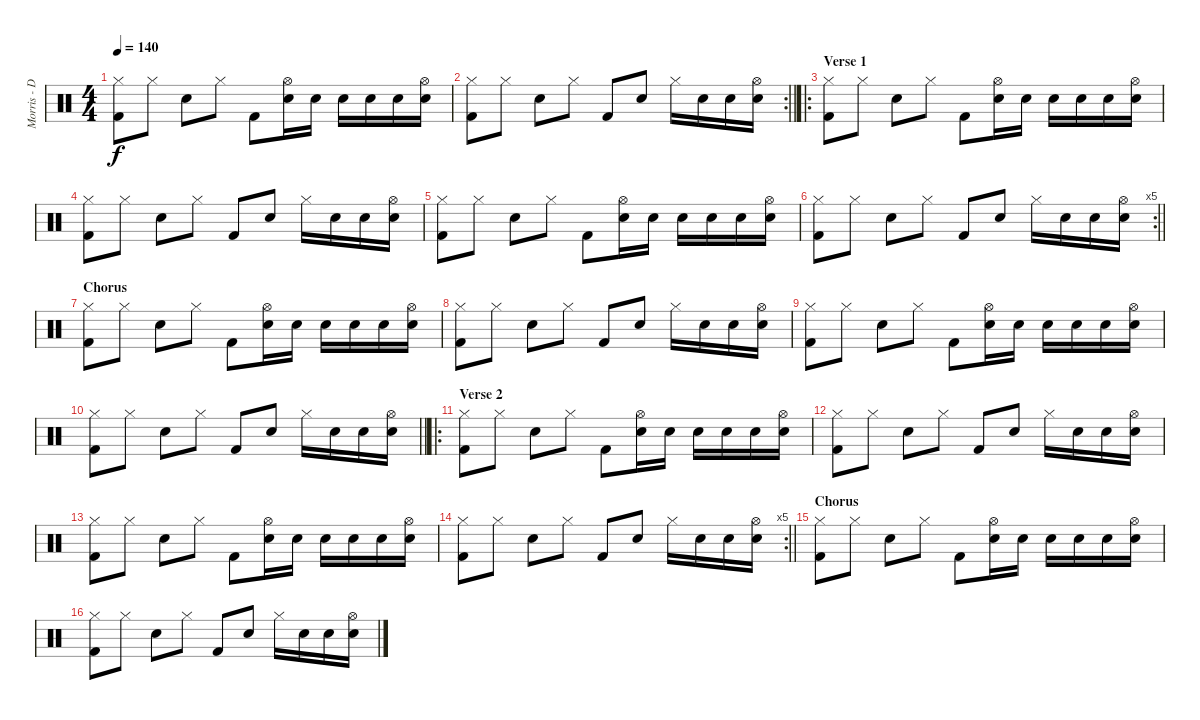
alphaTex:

\track ("Morris - Drums" "Morris - D") {instrument percussion}
\staff {score}
\articulation defaults
\ts (4 4)
\tempo 140
\clef neutral
\ks c
("Kick (hit) 2" "Hi-Hat (closed)").8{dy f} "Hi-Hat (closed)".8 "Snare (hit) 2".8 "Hi-Hat (closed)".8 "Kick (hit) 2".8 ("Snare (hit) 2" "Hi-Hat (open)").16 "Snare (hit) 2".16 "Snare (hit) 2".16 "Snare (hit) 2".16 "Snare (hit) 2".16 ("Snare (hit) 2" "Hi-Hat (open)").16 |
\rc 2
\barLineRight lightlight
("Kick (hit) 2" "Hi-Hat (closed)").8 "Hi-Hat (closed)".8 "Snare (hit) 2".8 "Hi-Hat (closed)".8 "Kick (hit) 2".8 "Snare (hit) 2".8 "Hi-Hat (closed)".16 "Snare (hit) 2".16 "Snare (hit) 2".16 ("Snare (hit) 2" "Hi-Hat (open)").16 |
\ro
\section ("" "Verse 1")
("Kick (hit) 2" "Hi-Hat (closed)").8 "Hi-Hat (closed)".8 "Snare (hit) 2".8 "Hi-Hat (closed)".8 "Kick (hit) 2".8 ("Snare (hit) 2" "Hi-Hat (open)").16 "Snare (hit) 2".16 "Snare (hit) 2".16 "Snare (hit) 2".16 "Snare (hit) 2".16 ("Snare (hit) 2" "Hi-Hat (open)").16 |
("Kick (hit) 2" "Hi-Hat (closed)").8 "Hi-Hat (closed)".8 "Snare (hit) 2".8 "Hi-Hat (closed)".8 "Kick (hit) 2".8 "Snare (hit) 2".8 "Hi-Hat (closed)".16 "Snare (hit) 2".16 "Snare (hit) 2".16 ("Snare (hit) 2" "Hi-Hat (open)").16 |
("Kick (hit) 2" "Hi-Hat (closed)").8 "Hi-Hat (closed)".8 "Snare (hit) 2".8 "Hi-Hat (closed)".8 "Kick (hit) 2".8 ("Snare (hit) 2" "Hi-Hat (open)").16 "Snare (hit) 2".16 "Snare (hit) 2".16 "Snare (hit) 2".16 "Snare (hit) 2".16 ("Snare (hit) 2" "Hi-Hat (open)").16 |
\rc 5
\barLineRight lightlight
("Kick (hit) 2" "Hi-Hat (closed)").8 "Hi-Hat (closed)".8 "Snare (hit) 2".8 "Hi-Hat (closed)".8 "Kick (hit) 2".8 "Snare (hit) 2".8 "Hi-Hat (closed)".16 "Snare (hit) 2".16 "Snare (hit) 2".16 ("Snare (hit) 2" "Hi-Hat (open)").16 |
\section ("" "Chorus")
("Kick (hit) 2" "Hi-Hat (closed)").8 "Hi-Hat (closed)".8 "Snare (hit) 2".8 "Hi-Hat (closed)".8 "Kick (hit) 2".8 ("Snare (hit) 2" "Hi-Hat (open)").16 "Snare (hit) 2".16 "Snare (hit) 2".16 "Snare (hit) 2".16 "Snare (hit) 2".16 ("Snare (hit) 2" "Hi-Hat (open)").16 |
("Kick (hit) 2" "Hi-Hat (closed)").8 "Hi-Hat (closed)".8 "Snare (hit) 2".8 "Hi-Hat (closed)".8 "Kick (hit) 2".8 "Snare (hit) 2".8 "Hi-Hat (closed)".16 "Snare (hit) 2".16 "Snare (hit) 2".16 ("Snare (hit) 2" "Hi-Hat (open)").16 |
("Kick (hit) 2" "Hi-Hat (closed)").8 "Hi-Hat (closed)".8 "Snare (hit) 2".8 "Hi-Hat (closed)".8 "Kick (hit) 2".8 ("Snare (hit) 2" "Hi-Hat (open)").16 "Snare (hit) 2".16 "Snare (hit) 2".16 "Snare (hit) 2".16 "Snare (hit) 2".16 ("Snare (hit) 2" "Hi-Hat (open)").16 |
\barLineRight lightlight
("Kick (hit) 2" "Hi-Hat (closed)").8 "Hi-Hat (closed)".8 "Snare (hit) 2".8 "Hi-Hat (closed)".8 "Kick (hit) 2".8 "Snare (hit) 2".8 "Hi-Hat (closed)".16 "Snare (hit) 2".16 "Snare (hit) 2".16 ("Snare (hit) 2" "Hi-Hat (open)").16 |
\ro
\section ("" "Verse 2")
("Kick (hit) 2" "Hi-Hat (closed)").8 "Hi-Hat (closed)".8 "Snare (hit) 2".8 "Hi-Hat (closed)".8 "Kick (hit) 2".8 ("Snare (hit) 2" "Hi-Hat (open)").16 "Snare (hit) 2".16 "Snare (hit) 2".16 "Snare (hit) 2".16 "Snare (hit) 2".16 ("Snare (hit) 2" "Hi-Hat (open)").16 |
("Kick (hit) 2" "Hi-Hat (closed)").8 "Hi-Hat (closed)".8 "Snare (hit) 2".8 "Hi-Hat (closed)".8 "Kick (hit) 2".8 "Snare (hit) 2".8 "Hi-Hat (closed)".16 "Snare (hit) 2".16 "Snare (hit) 2".16 ("Snare (hit) 2" "Hi-Hat (open)").16 |
("Kick (hit) 2" "Hi-Hat (closed)").8 "Hi-Hat (closed)".8 "Snare (hit) 2".8 "Hi-Hat (closed)".8 "Kick (hit) 2".8 ("Snare (hit) 2" "Hi-Hat (open)").16 "Snare (hit) 2".16 "Snare (hit) 2".16 "Snare (hit) 2".16 "Snare (hit) 2".16 ("Snare (hit) 2" "Hi-Hat (open)").16 |
\rc 5
\barLineRight lightlight
("Kick (hit) 2" "Hi-Hat (closed)").8 "Hi-Hat (closed)".8 "Snare (hit) 2".8 "Hi-Hat (closed)".8 "Kick (hit) 2".8 "Snare (hit) 2".8 "Hi-Hat (closed)".16 "Snare (hit) 2".16 "Snare (hit) 2".16 ("Snare (hit) 2" "Hi-Hat (open)").16 |
\section ("" "Chorus")
("Kick (hit) 2" "Hi-Hat (closed)").8 "Hi-Hat (closed)".8 "Snare (hit) 2".8 "Hi-Hat (closed)".8 "Kick (hit) 2".8 ("Snare (hit) 2" "Hi-Hat (open)").16 "Snare (hit) 2".16 "Snare (hit) 2".16 "Snare (hit) 2".16 "Snare (hit) 2".16 ("Snare (hit) 2" "Hi-Hat (open)").16 |
("Kick (hit) 2" "Hi-Hat (closed)").8 "Hi-Hat (closed)".8 "Snare (hit) 2".8 "Hi-Hat (closed)".8 "Kick (hit) 2".8 "Snare (hit) 2".8 "Hi-Hat (closed)".16 "Snare (hit) 2".16 "Snare (hit) 2".16 ("Snare (hit) 2" "Hi-Hat (open)").16
